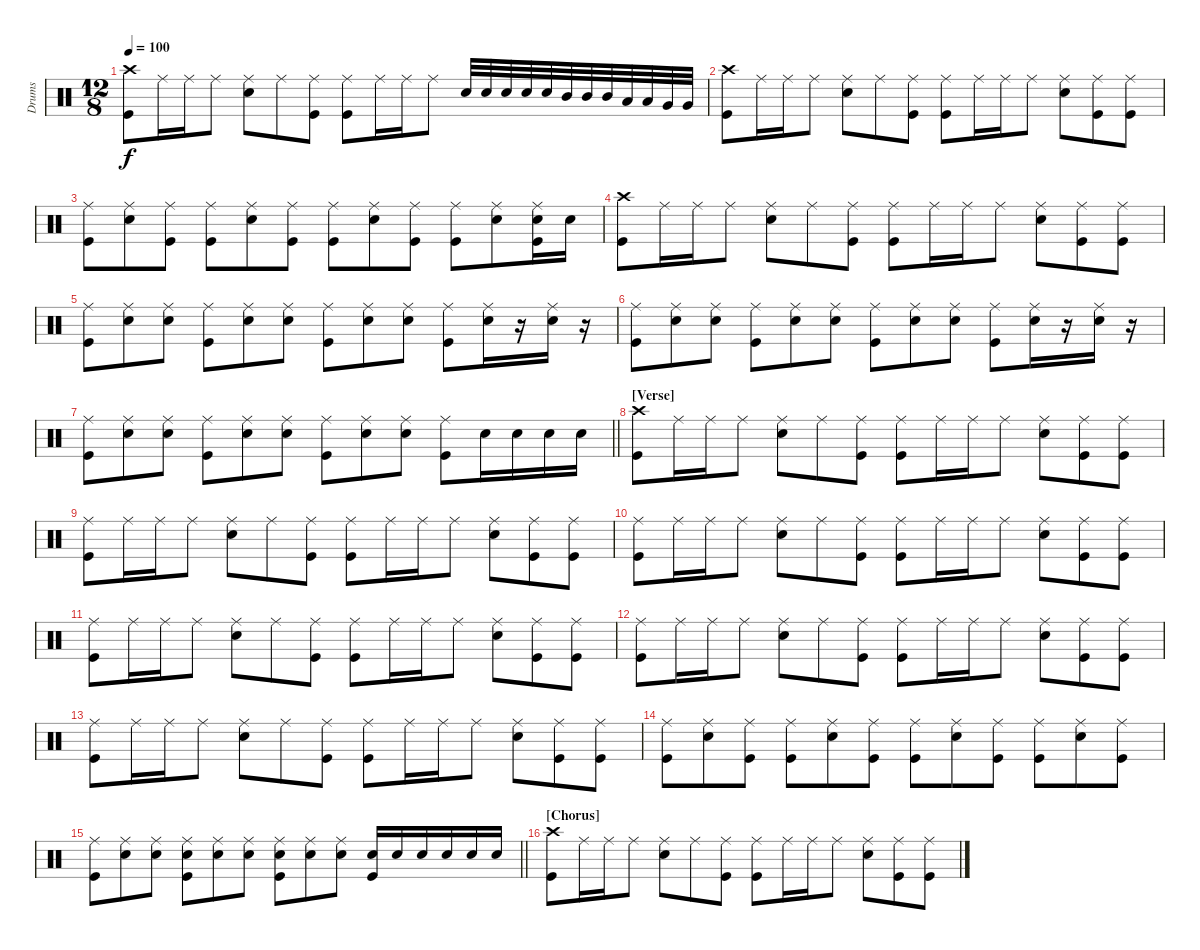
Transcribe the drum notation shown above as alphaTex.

\track ("Drums" "Drums") {instrument percussion}
\staff {score}
\articulation defaults
\ts (12 8)
\tempo 100
\clef neutral
\ks c
("Crash high (hit)" "Kick (hit)").8{dy f} "Ride (middle)".16 "Ride (middle)".16 "Ride (middle)".8 ("Ride (middle)" "Electric Snare (hit)").8 "Ride (middle)".8 ("Ride (middle)" "Kick (hit)").8 ("Ride (middle)" "Kick (hit)").8 "Ride (middle)".16 "Ride (middle)".16 "Ride (middle)".8 "Electric Snare (hit)".32 "Electric Snare (hit)".32 "Electric Snare (hit)".32 "Electric Snare (hit)".32 "Electric Snare (hit)".32 "Mid Tom (hit)".32 "Mid Tom (hit)".32 "Mid Tom (hit)".32 "Low Tom (hit)".32 "Low Tom (hit)".32 "Very Low Tom (hit)".32 "Very Low Tom (hit)".32 |
("Crash high (hit)" "Kick (hit)").8 "Ride (middle)".16 "Ride (middle)".16 "Ride (middle)".8 ("Ride (middle)" "Electric Snare (hit)").8 "Ride (middle)".8 ("Ride (middle)" "Kick (hit)").8 ("Ride (middle)" "Kick (hit)").8 "Ride (middle)".16 "Ride (middle)".16 "Ride (middle)".8 ("Ride (middle)" "Electric Snare (hit)").8 ("Ride (middle)" "Kick (hit)").8 ("Ride (middle)" "Kick (hit)").8 |
("Ride (middle)" "Kick (hit)").8 ("Ride (middle)" "Electric Snare (hit)").8 ("Ride (middle)" "Kick (hit)").8 ("Ride (middle)" "Kick (hit)").8 ("Ride (middle)" "Electric Snare (hit)").8 ("Ride (middle)" "Kick (hit)").8 ("Ride (middle)" "Kick (hit)").8 ("Ride (middle)" "Electric Snare (hit)").8 ("Ride (middle)" "Kick (hit)").8 ("Ride (middle)" "Kick (hit)").8 ("Ride (middle)" "Electric Snare (hit)").8 ("Ride (middle)" "Electric Snare (hit)" "Kick (hit)").16 "Electric Snare (hit)".16 |
("Crash high (hit)" "Kick (hit)").8 "Ride (middle)".16 "Ride (middle)".16 "Ride (middle)".8 ("Ride (middle)" "Electric Snare (hit)").8 "Ride (middle)".8 ("Ride (middle)" "Kick (hit)").8 ("Ride (middle)" "Kick (hit)").8 "Ride (middle)".16 "Ride (middle)".16 "Ride (middle)".8 ("Ride (middle)" "Electric Snare (hit)").8 ("Ride (middle)" "Kick (hit)").8 ("Ride (middle)" "Kick (hit)").8 |
("Ride (middle)" "Kick (hit)").8 ("Ride (middle)" "Electric Snare (hit)").8 ("Ride (middle)" "Electric Snare (hit)").8 ("Ride (middle)" "Kick (hit)").8 ("Ride (middle)" "Electric Snare (hit)").8 ("Ride (middle)" "Electric Snare (hit)").8 ("Ride (middle)" "Kick (hit)").8 ("Ride (middle)" "Electric Snare (hit)").8 ("Ride (middle)" "Electric Snare (hit)").8 ("Ride (middle)" "Kick (hit)").8 ("Ride (middle)" "Electric Snare (hit)").16 r.16 ("Ride (middle)" "Electric Snare (hit)").16 r.16 |
("Ride (middle)" "Kick (hit)").8 ("Ride (middle)" "Electric Snare (hit)").8 ("Ride (middle)" "Electric Snare (hit)").8 ("Ride (middle)" "Kick (hit)").8 ("Ride (middle)" "Electric Snare (hit)").8 ("Ride (middle)" "Electric Snare (hit)").8 ("Ride (middle)" "Kick (hit)").8 ("Ride (middle)" "Electric Snare (hit)").8 ("Ride (middle)" "Electric Snare (hit)").8 ("Ride (middle)" "Kick (hit)").8 ("Ride (middle)" "Electric Snare (hit)").16 r.16 ("Ride (middle)" "Electric Snare (hit)").16 r.16 |
\barLineRight lightlight
("Ride (middle)" "Kick (hit)").8 ("Ride (middle)" "Electric Snare (hit)").8 ("Ride (middle)" "Electric Snare (hit)").8 ("Ride (middle)" "Kick (hit)").8 ("Ride (middle)" "Electric Snare (hit)").8 ("Ride (middle)" "Electric Snare (hit)").8 ("Ride (middle)" "Kick (hit)").8 ("Ride (middle)" "Electric Snare (hit)").8 ("Ride (middle)" "Electric Snare (hit)").8 ("Ride (middle)" "Kick (hit)").8 "Electric Snare (hit)".16 "Electric Snare (hit)".16 "Electric Snare (hit)".16 "Electric Snare (hit)".16 |
\section ("" "[Verse]")
("Crash high (hit)" "Kick (hit)").8 "Ride (middle)".16 "Ride (middle)".16 "Ride (middle)".8 ("Ride (middle)" "Electric Snare (hit)").8 "Ride (middle)".8 ("Ride (middle)" "Kick (hit)").8 ("Ride (middle)" "Kick (hit)").8 "Ride (middle)".16 "Ride (middle)".16 "Ride (middle)".8 ("Ride (middle)" "Electric Snare (hit)").8 ("Ride (middle)" "Kick (hit)").8 ("Ride (middle)" "Kick (hit)").8 |
("Ride (middle)" "Kick (hit)").8 "Ride (middle)".16 "Ride (middle)".16 "Ride (middle)".8 ("Ride (middle)" "Electric Snare (hit)").8 "Ride (middle)".8 ("Ride (middle)" "Kick (hit)").8 ("Ride (middle)" "Kick (hit)").8 "Ride (middle)".16 "Ride (middle)".16 "Ride (middle)".8 ("Ride (middle)" "Electric Snare (hit)").8 ("Ride (middle)" "Kick (hit)").8 ("Ride (middle)" "Kick (hit)").8 |
("Ride (middle)" "Kick (hit)").8 "Ride (middle)".16 "Ride (middle)".16 "Ride (middle)".8 ("Ride (middle)" "Electric Snare (hit)").8 "Ride (middle)".8 ("Ride (middle)" "Kick (hit)").8 ("Ride (middle)" "Kick (hit)").8 "Ride (middle)".16 "Ride (middle)".16 "Ride (middle)".8 ("Ride (middle)" "Electric Snare (hit)").8 ("Ride (middle)" "Kick (hit)").8 ("Ride (middle)" "Kick (hit)").8 |
("Ride (middle)" "Kick (hit)").8 "Ride (middle)".16 "Ride (middle)".16 "Ride (middle)".8 ("Ride (middle)" "Electric Snare (hit)").8 "Ride (middle)".8 ("Ride (middle)" "Kick (hit)").8 ("Ride (middle)" "Kick (hit)").8 "Ride (middle)".16 "Ride (middle)".16 "Ride (middle)".8 ("Ride (middle)" "Electric Snare (hit)").8 ("Ride (middle)" "Kick (hit)").8 ("Ride (middle)" "Kick (hit)").8 |
("Ride (middle)" "Kick (hit)").8 "Ride (middle)".16 "Ride (middle)".16 "Ride (middle)".8 ("Ride (middle)" "Electric Snare (hit)").8 "Ride (middle)".8 ("Ride (middle)" "Kick (hit)").8 ("Ride (middle)" "Kick (hit)").8 "Ride (middle)".16 "Ride (middle)".16 "Ride (middle)".8 ("Ride (middle)" "Electric Snare (hit)").8 ("Ride (middle)" "Kick (hit)").8 ("Ride (middle)" "Kick (hit)").8 |
("Ride (middle)" "Kick (hit)").8 "Ride (middle)".16 "Ride (middle)".16 "Ride (middle)".8 ("Ride (middle)" "Electric Snare (hit)").8 "Ride (middle)".8 ("Ride (middle)" "Kick (hit)").8 ("Ride (middle)" "Kick (hit)").8 "Ride (middle)".16 "Ride (middle)".16 "Ride (middle)".8 ("Ride (middle)" "Electric Snare (hit)").8 ("Ride (middle)" "Kick (hit)").8 ("Ride (middle)" "Kick (hit)").8 |
("Ride (middle)" "Kick (hit)").8 ("Ride (middle)" "Electric Snare (hit)").8 ("Ride (middle)" "Kick (hit)").8 ("Ride (middle)" "Kick (hit)").8 ("Ride (middle)" "Electric Snare (hit)").8 ("Ride (middle)" "Kick (hit)").8 ("Ride (middle)" "Kick (hit)").8 ("Ride (middle)" "Electric Snare (hit)").8 ("Ride (middle)" "Kick (hit)").8 ("Ride (middle)" "Kick (hit)").8 ("Ride (middle)" "Electric Snare (hit)").8 ("Ride (middle)" "Kick (hit)").8 |
\barLineRight lightlight
("Ride (middle)" "Kick (hit)").8 ("Ride (middle)" "Electric Snare (hit)").8 ("Ride (middle)" "Electric Snare (hit)").8 ("Ride (middle)" "Electric Snare (hit)" "Kick (hit)").8 ("Ride (middle)" "Electric Snare (hit)").8 ("Ride (middle)" "Electric Snare (hit)").8 ("Ride (middle)" "Electric Snare (hit)" "Kick (hit)").8 ("Ride (middle)" "Electric Snare (hit)").8 ("Ride (middle)" "Electric Snare (hit)").8 ("Electric Snare (hit)" "Kick (hit)").16 "Electric Snare (hit)".16 "Electric Snare (hit)".16 "Electric Snare (hit)".16 "Electric Snare (hit)".16 "Electric Snare (hit)".16 |
\section ("" "[Chorus]")
("Crash high (hit)" "Kick (hit)").8 "Ride (middle)".16 "Ride (middle)".16 "Ride (middle)".8 ("Ride (middle)" "Electric Snare (hit)").8 "Ride (middle)".8 ("Ride (middle)" "Kick (hit)").8 ("Ride (middle)" "Kick (hit)").8 "Ride (middle)".16 "Ride (middle)".16 "Ride (middle)".8 ("Ride (middle)" "Electric Snare (hit)").8 ("Ride (middle)" "Kick (hit)").8 ("Ride (middle)" "Kick (hit)").8
